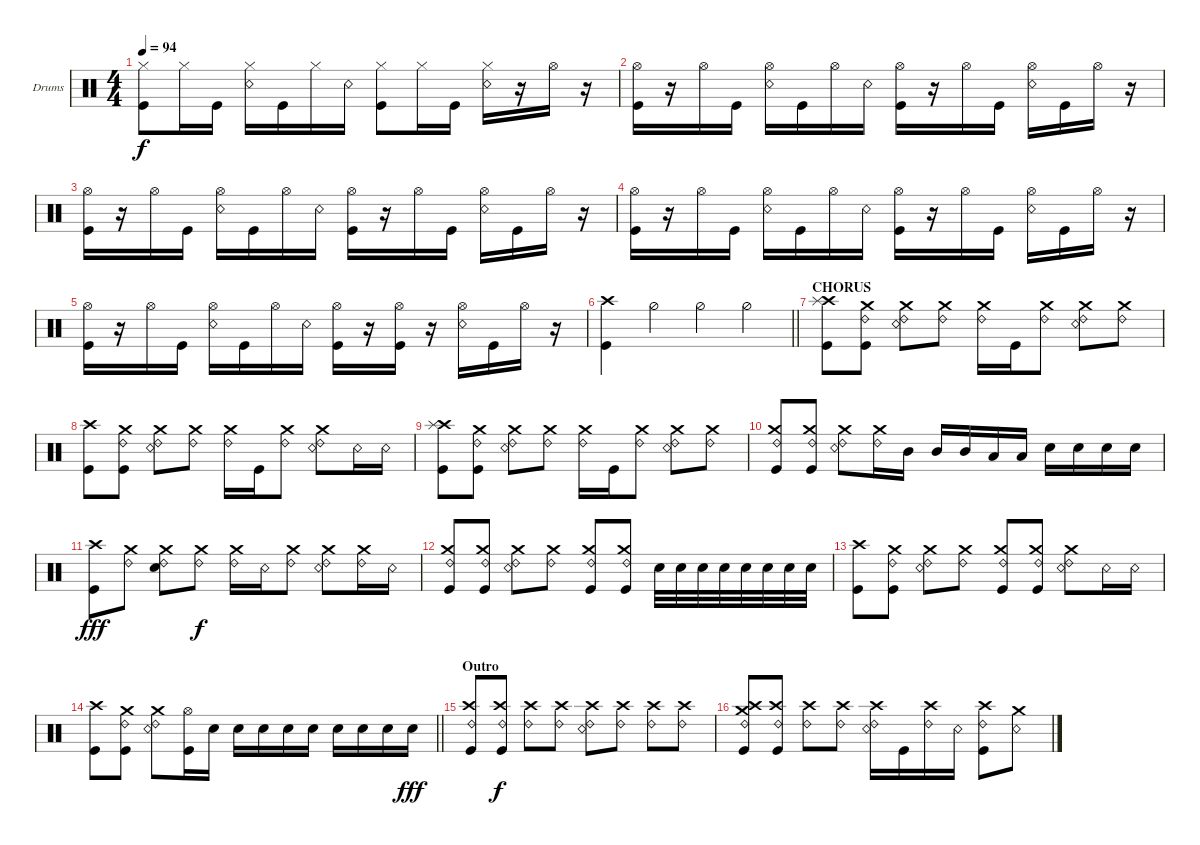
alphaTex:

\bracketExtendMode groupsimilarinstruments
\firstSystemTrackNameOrientation horizontal
\otherSystemsTrackNameOrientation horizontal
\track ("Drumkit" "Drums") {instrument percussion}
\staff {score}
\articulation defaults
\ts (4 4)
\tempo 94
\clef neutral
\ks c
("Kick (hit)" "Hi-Hat (closed)").8{dy f} "Hi-Hat (closed)".16 "Kick (hit)".16 ("Hi-Hat (closed)" "Snare (rim shot)").16 "Kick (hit)".16 "Hi-Hat (closed)".16 "Snare (rim shot)".16 ("Hi-Hat (closed)" "Kick (hit)").8 "Hi-Hat (closed)".16 "Kick (hit)".16 ("Hi-Hat (closed)" "Snare (rim shot)").16 r.16 "Hi-Hat (open)".16 r.16 |
("Hi-Hat (open)" "Kick (hit)").16 r.16 "Hi-Hat (open)".16 "Kick (hit)".16 ("Hi-Hat (open)" "Snare (rim shot)").16 "Kick (hit)".16 "Hi-Hat (open)".16 "Snare (rim shot)".16 ("Hi-Hat (open)" "Kick (hit)").16 r.16 "Hi-Hat (open)".16 "Kick (hit)".16 ("Hi-Hat (open)" "Snare (rim shot)").16 "Kick (hit)".16 "Hi-Hat (open)".16 r.16 |
("Hi-Hat (open)" "Kick (hit)").16 r.16 "Hi-Hat (open)".16 "Kick (hit)".16 ("Hi-Hat (open)" "Snare (rim shot)").16 "Kick (hit)".16 "Hi-Hat (open)".16 "Snare (rim shot)".16 ("Hi-Hat (open)" "Kick (hit)").16 r.16 "Hi-Hat (open)".16 "Kick (hit)".16 ("Hi-Hat (open)" "Snare (rim shot)").16 "Kick (hit)".16 "Hi-Hat (open)".16 r.16 |
("Hi-Hat (open)" "Kick (hit)").16 r.16 "Hi-Hat (open)".16 "Kick (hit)".16 ("Hi-Hat (open)" "Snare (rim shot)").16 "Kick (hit)".16 "Hi-Hat (open)".16 "Snare (rim shot)".16 ("Hi-Hat (open)" "Kick (hit)").16 r.16 "Hi-Hat (open)".16 "Kick (hit)".16 ("Hi-Hat (open)" "Snare (rim shot)").16 "Kick (hit)".16 "Hi-Hat (open)".16 r.16 |
("Hi-Hat (open)" "Kick (hit)").16 r.16 "Hi-Hat (open)".16 "Kick (hit)".16 ("Hi-Hat (open)" "Snare (rim shot)").16 "Kick (hit)".16 "Hi-Hat (open)".16 "Snare (rim shot)".16 ("Hi-Hat (open)" "Kick (hit)").16 r.16 ("Hi-Hat (open)" "Kick (hit)").16 r.16 ("Hi-Hat (open)" "Snare (rim shot)").16 "Kick (hit)".16 "Hi-Hat (open)".16 r.16 |
\barLineRight lightlight
("Crash high (hit)" "Kick (hit)").4 "Hi-Hat (half)".4 "Hi-Hat (half)".4 "Hi-Hat (half)".4 |
\section ("" "CHORUS")
("Kick (hit)" "Crash high (hit)" "Splash (hit)").8 ("Crash medium (hit)" "Kick (hit)" "Ride (bell) 2").8 ("Crash medium (hit)" "Snare (rim shot)" "Ride (bell) 2").8 ("Crash medium (hit)" "Ride (bell) 2").8 ("Crash medium (hit)" "Ride (bell) 2").16 "Kick (hit)".16 ("Crash medium (hit)" "Ride (bell) 2").8 ("Crash medium (hit)" "Snare (rim shot)" "Ride (bell) 2").8 ("Crash medium (hit)" "Ride (bell) 2").8 |
("Crash high (hit)" "Kick (hit)").8 ("Crash medium (hit)" "Kick (hit)" "Ride (bell) 2").8 ("Crash medium (hit)" "Ride (bell) 2" "Snare (rim shot)").8 ("Crash medium (hit)" "Ride (bell) 2").8 ("Crash medium (hit)" "Ride (bell) 2").16 "Kick (hit)".16 ("Crash medium (hit)" "Ride (bell) 2").8 ("Crash medium (hit)" "Snare (rim shot)" "Ride (bell) 2").8 "Snare (rim shot)".16 "Snare (rim shot)".16 |
("Kick (hit)" "Crash high (hit)" "Splash (hit)").8 ("Crash medium (hit)" "Kick (hit)" "Ride (bell) 2").8 ("Crash medium (hit)" "Snare (rim shot)" "Ride (bell) 2").8 ("Crash medium (hit)" "Ride (bell) 2").8 ("Crash medium (hit)" "Ride (bell) 2").16 "Kick (hit)".16 ("Crash medium (hit)" "Ride (bell) 2").8 ("Crash medium (hit)" "Snare (rim shot)" "Ride (bell) 2").8 ("Crash medium (hit)" "Ride (bell) 2").8 |
("Crash medium (hit)" "Kick (hit)" "Ride (bell) 2").8 ("Crash medium (hit)" "Kick (hit)" "Ride (bell) 2").8 ("Crash medium (hit)" "Snare (rim shot)" "Ride (bell) 2").8 ("Crash medium (hit)" "Ride (bell) 2").16 "Mid Tom (hit)".16 "Mid Tom (hit)".16 "Mid Tom (hit)".16 "Low Tom (hit)".16 "Low Tom (hit)".16 "Snare (hit) 2".16 "Snare (hit) 2".16 "Snare (hit) 2".16 "Snare (hit) 2".16 |
("Crash high (hit)" "Kick (hit)").8{dy fff} ("Crash medium (hit)" "Ride (bell) 2").8 ("Crash medium (hit)" "Snare (hit) 2" "Ride (bell) 2").8 ("Crash medium (hit)" "Ride (bell) 2").8{dy f} ("Crash medium (hit)" "Ride (bell) 2").16 "Snare (rim shot)".16 ("Crash medium (hit)" "Ride (bell) 2").8 ("Crash medium (hit)" "Snare (rim shot)" "Ride (bell) 2").8 ("Crash medium (hit)" "Ride (bell) 2").16 "Snare (rim shot)".16 |
("Crash medium (hit)" "Kick (hit)" "Ride (bell) 2").8 ("Crash medium (hit)" "Kick (hit)" "Ride (bell) 2").8 ("Crash medium (hit)" "Snare (rim shot)" "Ride (bell) 2").8 ("Crash medium (hit)" "Ride (bell) 2").8 ("Crash medium (hit)" "Kick (hit)" "Ride (bell) 2").8 ("Crash medium (hit)" "Kick (hit)" "Ride (bell) 2").8 "Snare (hit) 2".32 "Snare (hit) 2".32 "Snare (hit) 2".32 "Snare (hit) 2".32 "Snare (hit) 2".32 "Snare (hit) 2".32 "Snare (hit) 2".32 "Snare (hit) 2".32 |
("Crash high (hit)" "Kick (hit)").8 ("Crash medium (hit)" "Kick (hit)" "Ride (bell) 2").8 ("Crash medium (hit)" "Snare (rim shot)" "Ride (bell) 2").8 ("Crash medium (hit)" "Ride (bell) 2").8 ("Crash medium (hit)" "Kick (hit)" "Ride (bell) 2").8 ("Crash medium (hit)" "Kick (hit)" "Ride (bell) 2").8 ("Crash medium (hit)" "Snare (rim shot)" "Ride (bell) 2").8 "Snare (rim shot)".16 "Snare (rim shot)".16 |
\barLineRight lightlight
("Crash high (hit)" "Kick (hit)").8 ("Crash medium (hit)" "Kick (hit)" "Ride (bell) 2").8 ("Crash medium (hit)" "Snare (rim shot)" "Ride (bell) 2").8 ("Hi-Hat (open)" "Kick (hit)").16 "Snare (hit) 2".16 "Snare (hit) 2".16 "Snare (hit) 2".16 "Snare (hit) 2".16 "Snare (hit) 2".16 "Snare (hit) 2".16 "Snare (hit) 2".16 "Snare (hit) 2".16 "Snare (hit) 2".16{dy fff} |
\section ("" "Outro")
("Crash high (hit)" "Kick (hit)" "Ride (bell) 2").8 ("Crash high (hit)" "Kick (hit)" "Ride (bell) 2").8{dy f} ("Crash high (hit)" "Ride (bell) 2").8 ("Crash high (hit)" "Ride (bell) 2").8 ("Crash high (hit)" "Snare (rim shot)" "Ride (bell) 2").8 ("Crash high (hit)" "Ride (bell) 2").8 ("Crash high (hit)" "Ride (bell) 2").8 ("Crash high (hit)" "Ride (bell) 2").8 |
("Crash medium (hit)" "Crash high (hit)" "Kick (hit)" "Ride (bell) 2").8 ("Crash high (hit)" "Kick (hit)" "Ride (bell) 2").8 ("Crash high (hit)" "Ride (bell) 2").8 ("Crash high (hit)" "Ride (bell) 2").8 ("Crash high (hit)" "Snare (rim shot)" "Ride (bell) 2").16 "Kick (hit)".16 ("Crash high (hit)" "Ride (bell) 2").16 "Snare (rim shot)".16 ("Crash high (hit)" "Kick (hit)" "Ride (bell) 2").8 ("Crash medium (hit)" "Snare (rim shot)").8
